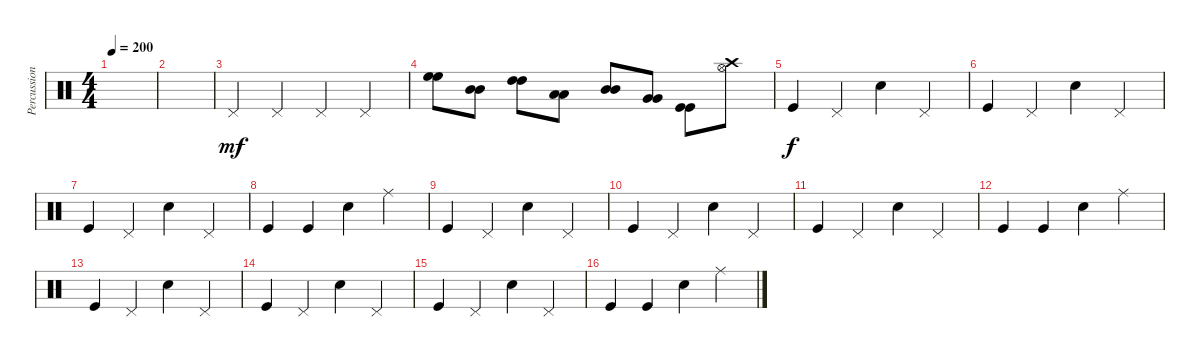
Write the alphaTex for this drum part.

\track ("Percussion" "Percussion") {instrument percussion}
\staff {score}
\articulation defaults
\ts (4 4)
\tempo 200
\clef neutral
\ks c
|
|
"Pedal Hi-Hat (hit)".4{dy mf} "Pedal Hi-Hat (hit)".4 "Pedal Hi-Hat (hit)".4 "Pedal Hi-Hat (hit)".4 |
("High Floor Tom (hit)" "High Floor Tom (hit)").8 ("Mid Tom (hit)" "Mid Tom (hit)").8 ("High Tom (hit)" "High Tom (hit)").8 ("Low Tom (hit)" "Low Tom (hit)").8 ("Mid Tom (hit)" "Mid Tom (hit)").8 ("Very Low Tom (hit)" "Very Low Tom (hit)").8 ("Kick (hit)" "Kick (hit)").8 ("Crash high (hit)" "Hi-Hat (open)").8 |
"Kick (hit)".4{dy f} "Pedal Hi-Hat (hit)".4 "Snare (hit) 2".4 "Pedal Hi-Hat (hit)".4 |
"Kick (hit)".4 "Pedal Hi-Hat (hit)".4 "Snare (hit) 2".4 "Pedal Hi-Hat (hit)".4 |
"Kick (hit)".4 "Pedal Hi-Hat (hit)".4 "Snare (hit) 2".4 "Pedal Hi-Hat (hit)".4 |
"Kick (hit)".4 "Kick (hit)".4 "Snare (hit) 2".4 "Ride (middle)".4 |
"Kick (hit)".4 "Pedal Hi-Hat (hit)".4 "Snare (hit) 2".4 "Pedal Hi-Hat (hit)".4 |
"Kick (hit)".4 "Pedal Hi-Hat (hit)".4 "Snare (hit) 2".4 "Pedal Hi-Hat (hit)".4 |
"Kick (hit)".4 "Pedal Hi-Hat (hit)".4 "Snare (hit) 2".4 "Pedal Hi-Hat (hit)".4 |
"Kick (hit)".4 "Kick (hit)".4 "Snare (hit) 2".4 "Ride (middle)".4 |
"Kick (hit)".4 "Pedal Hi-Hat (hit)".4 "Snare (hit) 2".4 "Pedal Hi-Hat (hit)".4 |
"Kick (hit)".4 "Pedal Hi-Hat (hit)".4 "Snare (hit) 2".4 "Pedal Hi-Hat (hit)".4 |
"Kick (hit)".4 "Pedal Hi-Hat (hit)".4 "Snare (hit) 2".4 "Pedal Hi-Hat (hit)".4 |
"Kick (hit)".4 "Kick (hit)".4 "Snare (hit) 2".4 "Ride (middle)".4
